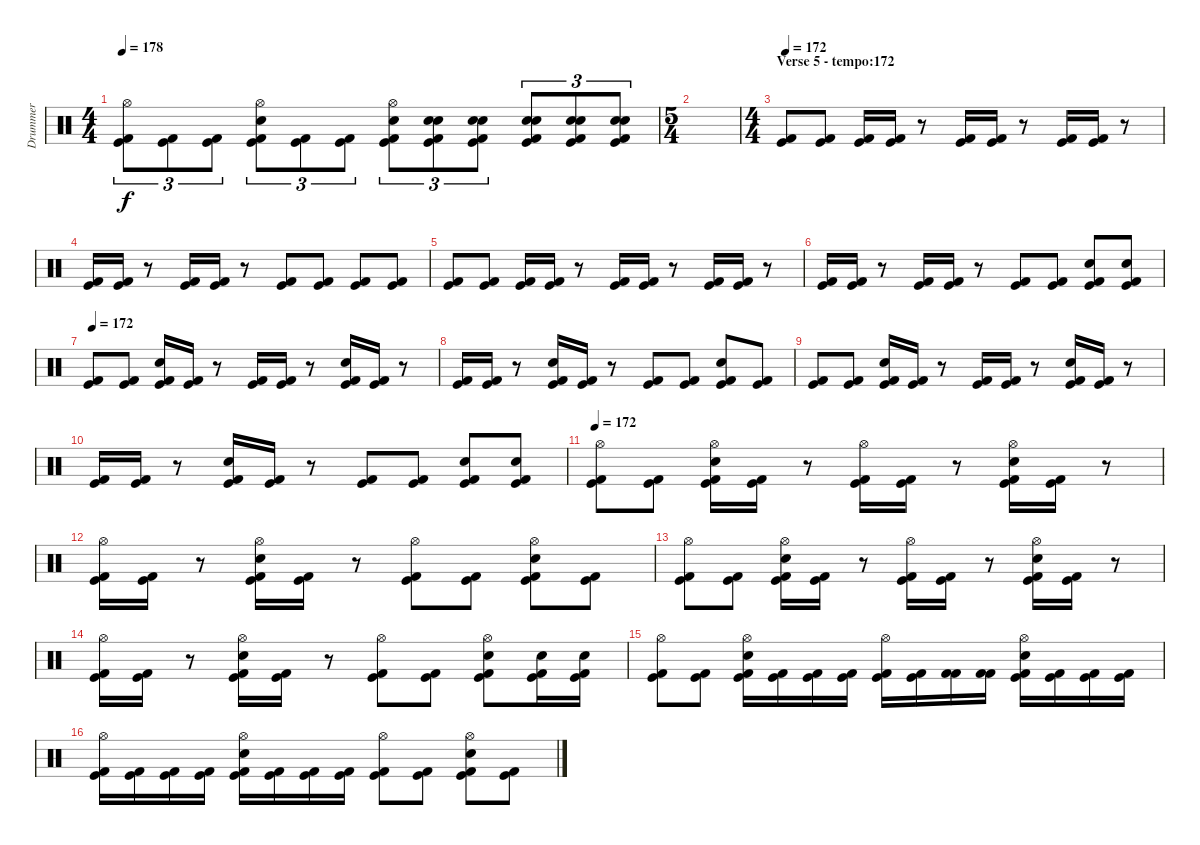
\track ("Drummer" "Drummer") {instrument percussion}
\staff {score}
\articulation defaults
\ts (4 4)
\tempo 178
\clef neutral
\ks c
("Hi-Hat (open)" "Kick (hit)" "Kick (hit) 2").8{tu (3 2) dy f} ("Kick (hit)" "Kick (hit) 2").8{tu (3 2)} ("Kick (hit)" "Kick (hit) 2").8{tu (3 2)} ("Hi-Hat (open)" "Snare (hit) 2" "Kick (hit)" "Kick (hit) 2").8{tu (3 2)} ("Kick (hit)" "Kick (hit) 2").8{tu (3 2)} ("Kick (hit)" "Kick (hit) 2").8{tu (3 2)} ("Electric Snare (hit)" "Hi-Hat (open)" "Kick (hit)" "Kick (hit) 2").8{tu (3 2)} ("Snare (hit) 2" "Electric Snare (hit)" "Kick (hit)" "Kick (hit) 2").8{tu (3 2)} ("Electric Snare (hit)" "Snare (hit) 2" "Kick (hit)" "Kick (hit) 2").8{tu (3 2)} ("Electric Snare (hit)" "Snare (hit) 2" "Kick (hit)" "Kick (hit) 2").8{tu (3 2)} ("Electric Snare (hit)" "Snare (hit) 2" "Kick (hit)" "Kick (hit) 2").8{tu (3 2)} ("Electric Snare (hit)" "Snare (hit) 2" "Kick (hit)" "Kick (hit) 2").8{tu (3 2)} |
\ts (5 4)
|
\ts (4 4)
\section ("" "Verse 5 - tempo:172")
\tempo 172
("Kick (hit)" "Kick (hit) 2").8 ("Kick (hit)" "Kick (hit) 2").8 ("Kick (hit)" "Kick (hit) 2").16 ("Kick (hit)" "Kick (hit) 2").16 r.8 ("Kick (hit)" "Kick (hit) 2").16 ("Kick (hit)" "Kick (hit) 2").16 r.8 ("Kick (hit)" "Kick (hit) 2").16 ("Kick (hit)" "Kick (hit) 2").16 r.8 |
("Kick (hit)" "Kick (hit) 2").16 ("Kick (hit)" "Kick (hit) 2").16 r.8 ("Kick (hit)" "Kick (hit) 2").16 ("Kick (hit)" "Kick (hit) 2").16 r.8 ("Kick (hit)" "Kick (hit) 2").8 ("Kick (hit)" "Kick (hit) 2").8 ("Kick (hit)" "Kick (hit) 2").8 ("Kick (hit)" "Kick (hit) 2").8 |
("Kick (hit)" "Kick (hit) 2").8 ("Kick (hit)" "Kick (hit) 2").8 ("Kick (hit)" "Kick (hit) 2").16 ("Kick (hit)" "Kick (hit) 2").16 r.8 ("Kick (hit)" "Kick (hit) 2").16 ("Kick (hit)" "Kick (hit) 2").16 r.8 ("Kick (hit)" "Kick (hit) 2").16 ("Kick (hit)" "Kick (hit) 2").16 r.8 |
("Kick (hit)" "Kick (hit) 2").16 ("Kick (hit)" "Kick (hit) 2").16 r.8 ("Kick (hit)" "Kick (hit) 2").16 ("Kick (hit)" "Kick (hit) 2").16 r.8 ("Kick (hit)" "Kick (hit) 2").8 ("Kick (hit)" "Kick (hit) 2").8 ("Snare (hit) 2" "Kick (hit)" "Kick (hit) 2").8 ("Snare (hit) 2" "Kick (hit)" "Kick (hit) 2").8 |
\tempo 172
("Kick (hit)" "Kick (hit) 2").8 ("Kick (hit)" "Kick (hit) 2").8 ("Snare (hit) 2" "Kick (hit)" "Kick (hit) 2").16 ("Kick (hit)" "Kick (hit) 2").16 r.8 ("Kick (hit)" "Kick (hit) 2").16 ("Kick (hit)" "Kick (hit) 2").16 r.8 ("Snare (hit) 2" "Kick (hit)" "Kick (hit) 2").16 ("Kick (hit)" "Kick (hit) 2").16 r.8 |
("Kick (hit)" "Kick (hit) 2").16 ("Kick (hit)" "Kick (hit) 2").16 r.8 ("Snare (hit) 2" "Kick (hit)" "Kick (hit) 2").16 ("Kick (hit)" "Kick (hit) 2").16 r.8 ("Kick (hit)" "Kick (hit) 2").8 ("Kick (hit)" "Kick (hit) 2").8 ("Snare (hit) 2" "Kick (hit)" "Kick (hit) 2").8 ("Kick (hit)" "Kick (hit) 2").8 |
("Kick (hit)" "Kick (hit) 2").8 ("Kick (hit)" "Kick (hit) 2").8 ("Snare (hit) 2" "Kick (hit)" "Kick (hit) 2").16 ("Kick (hit)" "Kick (hit) 2").16 r.8 ("Kick (hit)" "Kick (hit) 2").16 ("Kick (hit)" "Kick (hit) 2").16 r.8 ("Snare (hit) 2" "Kick (hit)" "Kick (hit) 2").16 ("Kick (hit)" "Kick (hit) 2").16 r.8 |
("Kick (hit)" "Kick (hit) 2").16 ("Kick (hit)" "Kick (hit) 2").16 r.8 ("Snare (hit) 2" "Kick (hit)" "Kick (hit) 2").16 ("Kick (hit)" "Kick (hit) 2").16 r.8 ("Kick (hit)" "Kick (hit) 2").8 ("Kick (hit)" "Kick (hit) 2").8 ("Snare (hit) 2" "Kick (hit)" "Kick (hit) 2").8 ("Snare (hit) 2" "Kick (hit)" "Kick (hit) 2").8 |
\tempo 172
("Hi-Hat (open)" "Kick (hit)" "Kick (hit) 2").8 ("Kick (hit)" "Kick (hit) 2").8 ("Hi-Hat (open)" "Snare (hit) 2" "Kick (hit)" "Kick (hit) 2").16 ("Kick (hit)" "Kick (hit) 2").16 r.8 ("Hi-Hat (open)" "Kick (hit)" "Kick (hit) 2").16 ("Kick (hit)" "Kick (hit) 2").16 r.8 ("Hi-Hat (open)" "Snare (hit) 2" "Kick (hit)" "Kick (hit) 2").16 ("Kick (hit)" "Kick (hit) 2").16 r.8 |
("Hi-Hat (open)" "Kick (hit)" "Kick (hit) 2").16 ("Kick (hit)" "Kick (hit) 2").16 r.8 ("Hi-Hat (open)" "Snare (hit) 2" "Kick (hit)" "Kick (hit) 2").16 ("Kick (hit)" "Kick (hit) 2").16 r.8 ("Hi-Hat (open)" "Kick (hit)" "Kick (hit) 2").8 ("Kick (hit)" "Kick (hit) 2").8 ("Hi-Hat (open)" "Snare (hit) 2" "Kick (hit)" "Kick (hit) 2").8 ("Kick (hit)" "Kick (hit) 2").8 |
("Hi-Hat (open)" "Kick (hit)" "Kick (hit) 2").8 ("Kick (hit)" "Kick (hit) 2").8 ("Hi-Hat (open)" "Snare (hit) 2" "Kick (hit)" "Kick (hit) 2").16 ("Kick (hit)" "Kick (hit) 2").16 r.8 ("Hi-Hat (open)" "Kick (hit)" "Kick (hit) 2").16 ("Kick (hit)" "Kick (hit) 2").16 r.8 ("Hi-Hat (open)" "Snare (hit) 2" "Kick (hit)" "Kick (hit) 2").16 ("Kick (hit)" "Kick (hit) 2").16 r.8 |
("Hi-Hat (open)" "Kick (hit)" "Kick (hit) 2").16 ("Kick (hit)" "Kick (hit) 2").16 r.8 ("Hi-Hat (open)" "Snare (hit) 2" "Kick (hit)" "Kick (hit) 2").16 ("Kick (hit)" "Kick (hit) 2").16 r.8 ("Hi-Hat (open)" "Kick (hit)" "Kick (hit) 2").8 ("Kick (hit)" "Kick (hit) 2").8 ("Hi-Hat (open)" "Snare (hit) 2" "Kick (hit)" "Kick (hit) 2").8 ("Snare (hit) 2" "Kick (hit)" "Kick (hit) 2").16 ("Snare (hit) 2" "Kick (hit)" "Kick (hit) 2").16 |
("Hi-Hat (open)" "Kick (hit)" "Kick (hit) 2").8 ("Kick (hit)" "Kick (hit) 2").8 ("Hi-Hat (open)" "Snare (hit) 2" "Kick (hit)" "Kick (hit) 2").16 ("Kick (hit)" "Kick (hit) 2").16 ("Kick (hit)" "Kick (hit) 2").16 ("Kick (hit)" "Kick (hit) 2").16 ("Hi-Hat (open)" "Kick (hit)" "Kick (hit) 2").16 ("Kick (hit)" "Kick (hit) 2").16 ("Kick (hit) 2" "Kick (hit) 2").16 ("Kick (hit) 2" "Kick (hit) 2").16 ("Hi-Hat (open)" "Snare (hit) 2" "Kick (hit)" "Kick (hit) 2").16 ("Kick (hit)" "Kick (hit) 2").16 ("Kick (hit)" "Kick (hit) 2").16 ("Kick (hit)" "Kick (hit) 2").16 |
("Hi-Hat (open)" "Kick (hit)" "Kick (hit) 2").16 ("Kick (hit)" "Kick (hit) 2").16 ("Kick (hit)" "Kick (hit) 2").16 ("Kick (hit)" "Kick (hit) 2").16 ("Hi-Hat (open)" "Snare (hit) 2" "Kick (hit)" "Kick (hit) 2").16 ("Kick (hit)" "Kick (hit) 2").16 ("Kick (hit)" "Kick (hit) 2").16 ("Kick (hit)" "Kick (hit) 2").16 ("Hi-Hat (open)" "Kick (hit)" "Kick (hit) 2").8 ("Kick (hit)" "Kick (hit) 2").8 ("Hi-Hat (open)" "Snare (hit) 2" "Kick (hit)" "Kick (hit) 2").8 ("Kick (hit)" "Kick (hit) 2").8
